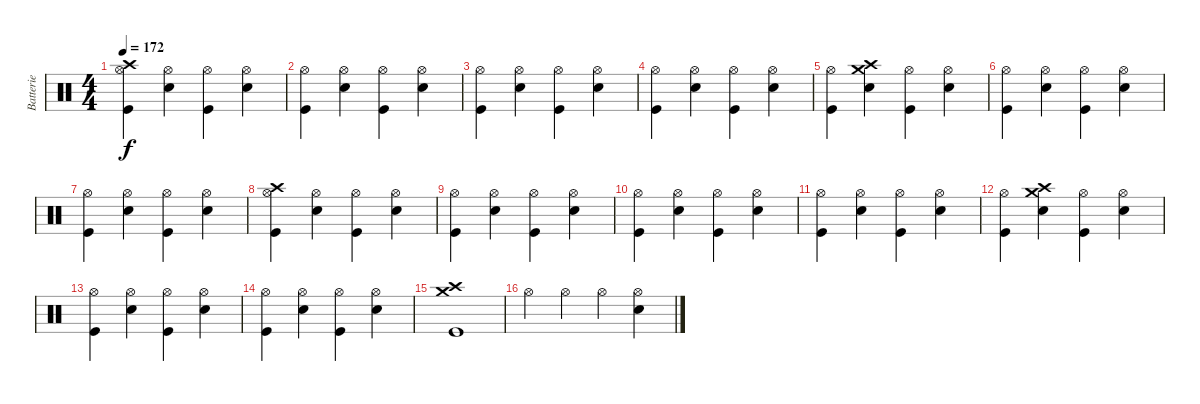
\track ("Batterie" "Batterie") {instrument percussion}
\staff {score}
\articulation defaults
\ts (4 4)
\section ("" "")
\tempo 172
\clef neutral
\ks c
("Hi-Hat (open)" "Crash high (hit)" "Kick (hit)").4{dy f} ("Hi-Hat (open)" "Snare (hit) 2").4 ("Hi-Hat (open)" "Kick (hit)").4 ("Hi-Hat (open)" "Snare (hit) 2").4 |
("Hi-Hat (open)" "Kick (hit)").4 ("Hi-Hat (open)" "Snare (hit) 2").4 ("Hi-Hat (open)" "Kick (hit)").4 ("Hi-Hat (open)" "Snare (hit) 2").4 |
("Hi-Hat (open)" "Kick (hit)").4 ("Hi-Hat (open)" "Snare (hit) 2").4 ("Hi-Hat (open)" "Kick (hit)").4 ("Hi-Hat (open)" "Snare (hit) 2").4 |
("Hi-Hat (open)" "Kick (hit)").4 ("Hi-Hat (open)" "Snare (hit) 2").4 ("Hi-Hat (open)" "Kick (hit)").4 ("Hi-Hat (open)" "Snare (hit) 2").4 |
("Hi-Hat (open)" "Kick (hit)").4 ("Crash high (hit)" "Crash medium (hit)" "Snare (hit) 2").4 ("Hi-Hat (open)" "Kick (hit)").4 ("Hi-Hat (open)" "Snare (hit) 2").4 |
("Hi-Hat (open)" "Kick (hit)").4 ("Hi-Hat (open)" "Snare (hit) 2").4 ("Hi-Hat (open)" "Kick (hit)").4 ("Hi-Hat (open)" "Snare (hit) 2").4 |
("Hi-Hat (open)" "Kick (hit)").4 ("Hi-Hat (open)" "Snare (hit) 2").4 ("Hi-Hat (open)" "Kick (hit)").4 ("Hi-Hat (open)" "Snare (hit) 2").4 |
("Hi-Hat (open)" "Crash high (hit)" "Kick (hit)").4 ("Hi-Hat (open)" "Snare (hit) 2").4 ("Hi-Hat (open)" "Kick (hit)").4 ("Hi-Hat (open)" "Snare (hit) 2").4 |
("Hi-Hat (open)" "Kick (hit)").4 ("Hi-Hat (open)" "Snare (hit) 2").4 ("Hi-Hat (open)" "Kick (hit)").4 ("Hi-Hat (open)" "Snare (hit) 2").4 |
("Hi-Hat (open)" "Kick (hit)").4 ("Hi-Hat (open)" "Snare (hit) 2").4 ("Hi-Hat (open)" "Kick (hit)").4 ("Hi-Hat (open)" "Snare (hit) 2").4 |
("Hi-Hat (open)" "Kick (hit)").4 ("Hi-Hat (open)" "Snare (hit) 2").4 ("Hi-Hat (open)" "Kick (hit)").4 ("Hi-Hat (open)" "Snare (hit) 2").4 |
("Hi-Hat (open)" "Kick (hit)").4 ("Crash high (hit)" "Crash medium (hit)" "Snare (hit) 2").4 ("Hi-Hat (open)" "Kick (hit)").4 ("Hi-Hat (open)" "Snare (hit) 2").4 |
("Hi-Hat (open)" "Kick (hit)").4 ("Hi-Hat (open)" "Snare (hit) 2").4 ("Hi-Hat (open)" "Kick (hit)").4 ("Hi-Hat (open)" "Snare (hit) 2").4 |
("Hi-Hat (open)" "Kick (hit)").4 ("Hi-Hat (open)" "Snare (hit) 2").4 ("Hi-Hat (open)" "Kick (hit)").4 ("Hi-Hat (open)" "Snare (hit) 2").4 |
("Crash high (hit)" "Crash medium (hit)" "Kick (hit)").1 |
"Hi-Hat (open)".4 "Hi-Hat (open)".4 "Hi-Hat (open)".4 ("Hi-Hat (open)" "Snare (hit) 2").4
